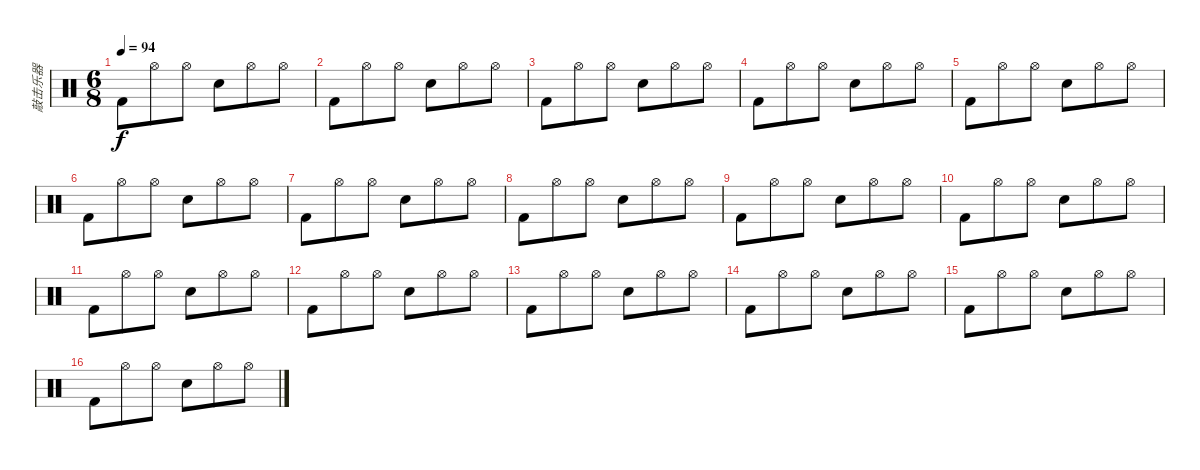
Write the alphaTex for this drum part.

\track ("敲击乐器" "敲击乐器") {instrument percussion}
\staff {score}
\articulation defaults
\ts (6 8)
\tempo 94
\clef neutral
\ks c "Kick (hit) 2".8{dy f} "Hi-Hat (open)".8 "Hi-Hat (open)".8 "Electric Snare (hit)".8 "Hi-Hat (open)".8 "Hi-Hat (open)".8
|
"Kick (hit) 2".8 "Hi-Hat (open)".8 "Hi-Hat (open)".8 "Electric Snare (hit)".8 "Hi-Hat (open)".8 "Hi-Hat (open)".8 |
"Kick (hit) 2".8 "Hi-Hat (open)".8 "Hi-Hat (open)".8 "Electric Snare (hit)".8 "Hi-Hat (open)".8 "Hi-Hat (open)".8 |
"Kick (hit) 2".8 "Hi-Hat (open)".8 "Hi-Hat (open)".8 "Electric Snare (hit)".8 "Hi-Hat (open)".8 "Hi-Hat (open)".8 |
"Kick (hit) 2".8 "Hi-Hat (open)".8 "Hi-Hat (open)".8 "Electric Snare (hit)".8 "Hi-Hat (open)".8 "Hi-Hat (open)".8 |
"Kick (hit) 2".8 "Hi-Hat (open)".8 "Hi-Hat (open)".8 "Electric Snare (hit)".8 "Hi-Hat (open)".8 "Hi-Hat (open)".8 |
"Kick (hit) 2".8 "Hi-Hat (open)".8 "Hi-Hat (open)".8 "Electric Snare (hit)".8 "Hi-Hat (open)".8 "Hi-Hat (open)".8 |
"Kick (hit) 2".8 "Hi-Hat (open)".8 "Hi-Hat (open)".8 "Electric Snare (hit)".8 "Hi-Hat (open)".8 "Hi-Hat (open)".8 |
"Kick (hit) 2".8 "Hi-Hat (open)".8 "Hi-Hat (open)".8 "Electric Snare (hit)".8 "Hi-Hat (open)".8 "Hi-Hat (open)".8 |
"Kick (hit) 2".8 "Hi-Hat (open)".8 "Hi-Hat (open)".8 "Electric Snare (hit)".8 "Hi-Hat (open)".8 "Hi-Hat (open)".8 |
"Kick (hit) 2".8 "Hi-Hat (open)".8 "Hi-Hat (open)".8 "Electric Snare (hit)".8 "Hi-Hat (open)".8 "Hi-Hat (open)".8 |
"Kick (hit) 2".8 "Hi-Hat (open)".8 "Hi-Hat (open)".8 "Electric Snare (hit)".8 "Hi-Hat (open)".8 "Hi-Hat (open)".8 |
"Kick (hit) 2".8 "Hi-Hat (open)".8 "Hi-Hat (open)".8 "Electric Snare (hit)".8 "Hi-Hat (open)".8 "Hi-Hat (open)".8 |
"Kick (hit) 2".8 "Hi-Hat (open)".8 "Hi-Hat (open)".8 "Electric Snare (hit)".8 "Hi-Hat (open)".8 "Hi-Hat (open)".8 |
"Kick (hit) 2".8 "Hi-Hat (open)".8 "Hi-Hat (open)".8 "Electric Snare (hit)".8 "Hi-Hat (open)".8 "Hi-Hat (open)".8 |
"Kick (hit) 2".8 "Hi-Hat (open)".8 "Hi-Hat (open)".8 "Electric Snare (hit)".8 "Hi-Hat (open)".8 "Hi-Hat (open)".8
